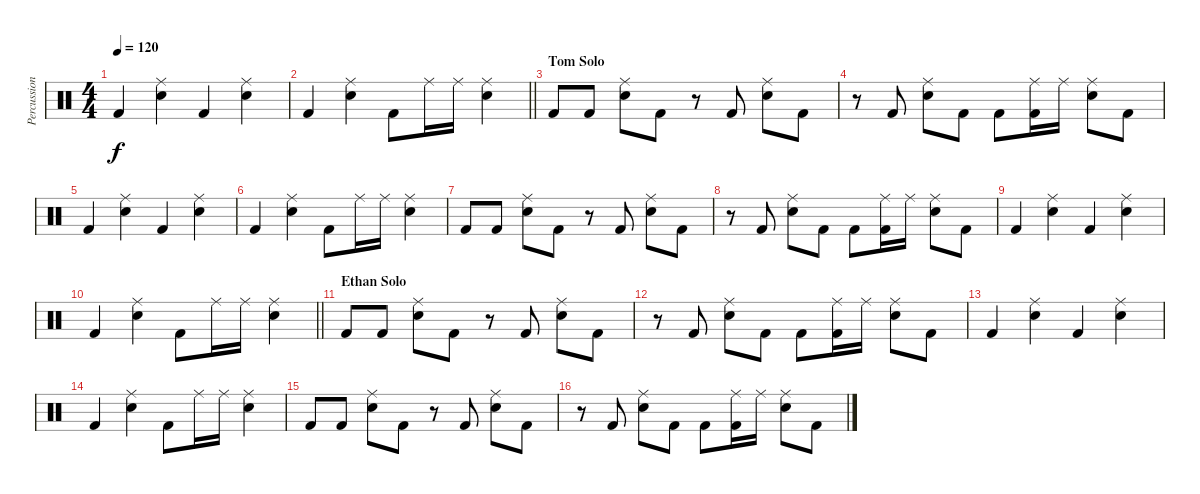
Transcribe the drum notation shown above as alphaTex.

\track ("Percussion" "Percussion") {instrument percussion}
\staff {score}
\articulation defaults
\ts (4 4)
\tempo 120
\clef neutral
\ks c "Kick (hit) 2".4{dy f}
("Ride (middle)" "Electric Snare (hit)").4 "Kick (hit) 2".4 ("Ride (middle)" "Electric Snare (hit)").4 |
\barLineRight lightlight "Kick (hit) 2".4
("Ride (middle)" "Electric Snare (hit)").4 "Kick (hit) 2".8 "Ride (middle)".16 "Ride (middle)".16 ("Ride (middle)" "Electric Snare (hit)").4 |
\section ("" "Tom Solo")
"Kick (hit) 2".8 "Kick (hit) 2".8 ("Ride (middle)" "Electric Snare (hit)").8 "Kick (hit) 2".8 r.8 "Kick (hit) 2".8 ("Ride (middle)" "Electric Snare (hit)").8 "Kick (hit) 2".8 |
r.8 "Kick (hit) 2".8 ("Ride (middle)" "Electric Snare (hit)").8 "Kick (hit) 2".8 "Kick (hit) 2".8 ("Ride (middle)" "Kick (hit) 2").16 "Ride (middle)".16 ("Ride (middle)" "Electric Snare (hit)").8 "Kick (hit) 2".8 |
"Kick (hit) 2".4 ("Ride (middle)" "Electric Snare (hit)").4 "Kick (hit) 2".4 ("Ride (middle)" "Electric Snare (hit)").4 |
"Kick (hit) 2".4 ("Ride (middle)" "Electric Snare (hit)").4 "Kick (hit) 2".8 "Ride (middle)".16 "Ride (middle)".16 ("Ride (middle)" "Electric Snare (hit)").4 |
"Kick (hit) 2".8 "Kick (hit) 2".8 ("Ride (middle)" "Electric Snare (hit)").8 "Kick (hit) 2".8 r.8 "Kick (hit) 2".8 ("Ride (middle)" "Electric Snare (hit)").8 "Kick (hit) 2".8 |
r.8 "Kick (hit) 2".8 ("Ride (middle)" "Electric Snare (hit)").8 "Kick (hit) 2".8 "Kick (hit) 2".8 ("Ride (middle)" "Kick (hit) 2").16 "Ride (middle)".16 ("Ride (middle)" "Electric Snare (hit)").8 "Kick (hit) 2".8 |
"Kick (hit) 2".4 ("Ride (middle)" "Electric Snare (hit)").4 "Kick (hit) 2".4 ("Ride (middle)" "Electric Snare (hit)").4 |
\barLineRight lightlight "Kick (hit) 2".4
("Ride (middle)" "Electric Snare (hit)").4 "Kick (hit) 2".8 "Ride (middle)".16 "Ride (middle)".16 ("Ride (middle)" "Electric Snare (hit)").4 |
\section ("" "Ethan Solo")
"Kick (hit) 2".8 "Kick (hit) 2".8 ("Ride (middle)" "Electric Snare (hit)").8 "Kick (hit) 2".8 r.8 "Kick (hit) 2".8 ("Ride (middle)" "Electric Snare (hit)").8 "Kick (hit) 2".8 |
r.8 "Kick (hit) 2".8 ("Ride (middle)" "Electric Snare (hit)").8 "Kick (hit) 2".8 "Kick (hit) 2".8 ("Ride (middle)" "Kick (hit) 2").16 "Ride (middle)".16 ("Ride (middle)" "Electric Snare (hit)").8 "Kick (hit) 2".8 |
"Kick (hit) 2".4 ("Ride (middle)" "Electric Snare (hit)").4 "Kick (hit) 2".4 ("Ride (middle)" "Electric Snare (hit)").4 |
"Kick (hit) 2".4 ("Ride (middle)" "Electric Snare (hit)").4 "Kick (hit) 2".8 "Ride (middle)".16 "Ride (middle)".16 ("Ride (middle)" "Electric Snare (hit)").4 |
"Kick (hit) 2".8 "Kick (hit) 2".8 ("Ride (middle)" "Electric Snare (hit)").8 "Kick (hit) 2".8 r.8 "Kick (hit) 2".8 ("Ride (middle)" "Electric Snare (hit)").8 "Kick (hit) 2".8 |
r.8 "Kick (hit) 2".8 ("Ride (middle)" "Electric Snare (hit)").8 "Kick (hit) 2".8 "Kick (hit) 2".8 ("Ride (middle)" "Kick (hit) 2").16 "Ride (middle)".16 ("Ride (middle)" "Electric Snare (hit)").8 "Kick (hit) 2".8
